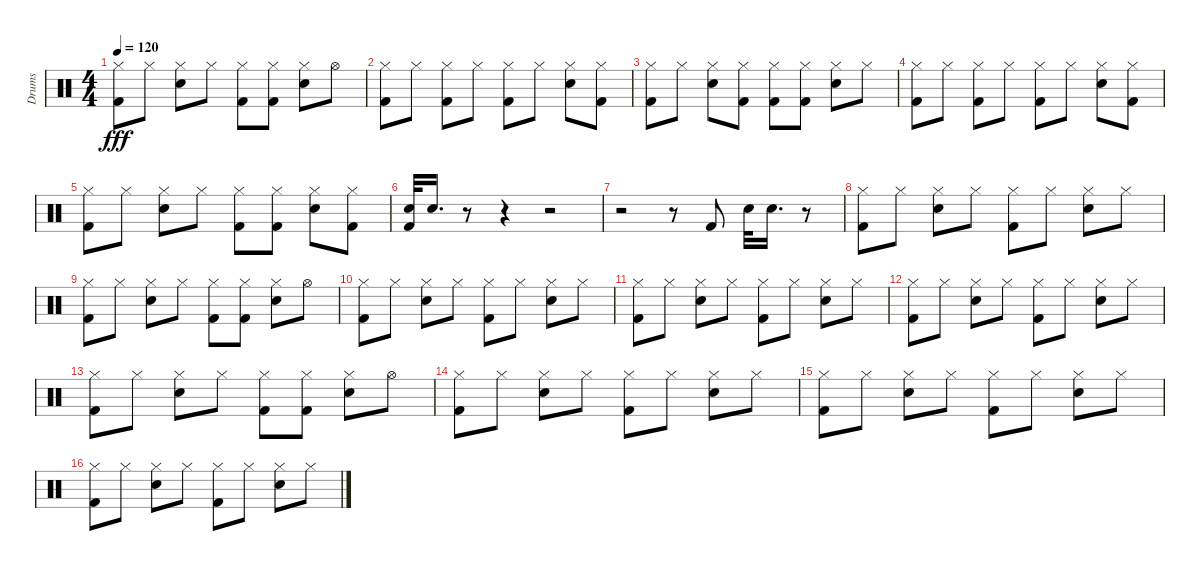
\track ("Drums" "Drums") {instrument percussion}
\staff {score}
\articulation defaults
\ts (4 4)
\tempo 120
\clef neutral
\ks c
("Hi-Hat (closed)" "Kick (hit) 2").8{dy fff} "Hi-Hat (closed)".8 ("Hi-Hat (closed)" "Snare (hit) 2").8 "Hi-Hat (closed)".8 ("Hi-Hat (closed)" "Kick (hit) 2").8 ("Hi-Hat (closed)" "Kick (hit) 2").8 ("Hi-Hat (closed)" "Snare (hit) 2").8 "Hi-Hat (open)".8 |
("Hi-Hat (closed)" "Kick (hit) 2").8 "Hi-Hat (closed)".8 ("Hi-Hat (closed)" "Kick (hit) 2").8 "Hi-Hat (closed)".8 ("Hi-Hat (closed)" "Kick (hit) 2").8 "Hi-Hat (closed)".8 ("Hi-Hat (closed)" "Snare (hit) 2").8 ("Hi-Hat (closed)" "Kick (hit) 2").8 |
("Hi-Hat (closed)" "Kick (hit) 2").8 "Hi-Hat (closed)".8 ("Hi-Hat (closed)" "Snare (hit) 2").8 ("Hi-Hat (closed)" "Kick (hit) 2").8 ("Hi-Hat (closed)" "Kick (hit) 2").8 ("Hi-Hat (closed)" "Kick (hit) 2").8 ("Hi-Hat (closed)" "Snare (hit) 2").8 "Hi-Hat (closed)".8 |
("Hi-Hat (closed)" "Kick (hit) 2").8 "Hi-Hat (closed)".8 ("Hi-Hat (closed)" "Kick (hit) 2").8 "Hi-Hat (closed)".8 ("Hi-Hat (closed)" "Kick (hit) 2").8 "Hi-Hat (closed)".8 ("Hi-Hat (closed)" "Snare (hit) 2").8 ("Hi-Hat (closed)" "Kick (hit) 2").8 |
("Hi-Hat (closed)" "Kick (hit) 2").8 "Hi-Hat (closed)".8 ("Hi-Hat (closed)" "Snare (hit) 2").8 "Hi-Hat (closed)".8 ("Hi-Hat (closed)" "Kick (hit) 2").8 ("Hi-Hat (closed)" "Kick (hit) 2").8 ("Hi-Hat (closed)" "Snare (hit) 2").8 ("Hi-Hat (closed)" "Kick (hit) 2").8 |
("Snare (hit) 2" "Kick (hit) 2").32 "Snare (hit) 2".16{d} r.8 r.4 r.2 |
r.2 r.8 "Kick (hit) 2".8 "Snare (hit) 2".32 "Snare (hit) 2".16{d} r.8 |
("Hi-Hat (closed)" "Kick (hit) 2").8 "Hi-Hat (closed)".8 ("Hi-Hat (closed)" "Snare (hit) 2").8 "Hi-Hat (closed)".8 ("Hi-Hat (closed)" "Kick (hit) 2").8 "Hi-Hat (closed)".8 ("Hi-Hat (closed)" "Snare (hit) 2").8 "Hi-Hat (closed)".8 |
("Hi-Hat (closed)" "Kick (hit) 2").8 "Hi-Hat (closed)".8 ("Hi-Hat (closed)" "Snare (hit) 2").8 "Hi-Hat (closed)".8 ("Hi-Hat (closed)" "Kick (hit) 2").8 ("Hi-Hat (closed)" "Kick (hit) 2").8 ("Hi-Hat (closed)" "Snare (hit) 2").8 "Hi-Hat (open)".8 |
("Hi-Hat (closed)" "Kick (hit) 2").8 "Hi-Hat (closed)".8 ("Hi-Hat (closed)" "Snare (hit) 2").8 "Hi-Hat (closed)".8 ("Hi-Hat (closed)" "Kick (hit) 2").8 "Hi-Hat (closed)".8 ("Hi-Hat (closed)" "Snare (hit) 2").8 "Hi-Hat (closed)".8 |
("Hi-Hat (closed)" "Kick (hit) 2").8 "Hi-Hat (closed)".8 ("Hi-Hat (closed)" "Snare (hit) 2").8 "Hi-Hat (closed)".8 ("Hi-Hat (closed)" "Kick (hit) 2").8 "Hi-Hat (closed)".8 ("Hi-Hat (closed)" "Snare (hit) 2").8 "Hi-Hat (closed)".8 |
("Hi-Hat (closed)" "Kick (hit) 2").8 "Hi-Hat (closed)".8 ("Hi-Hat (closed)" "Snare (hit) 2").8 "Hi-Hat (closed)".8 ("Hi-Hat (closed)" "Kick (hit) 2").8 "Hi-Hat (closed)".8 ("Hi-Hat (closed)" "Snare (hit) 2").8 "Hi-Hat (closed)".8 |
("Hi-Hat (closed)" "Kick (hit) 2").8 "Hi-Hat (closed)".8 ("Hi-Hat (closed)" "Snare (hit) 2").8 "Hi-Hat (closed)".8 ("Hi-Hat (closed)" "Kick (hit) 2").8 ("Hi-Hat (closed)" "Kick (hit) 2").8 ("Hi-Hat (closed)" "Snare (hit) 2").8 "Hi-Hat (open)".8 |
("Hi-Hat (closed)" "Kick (hit) 2").8 "Hi-Hat (closed)".8 ("Hi-Hat (closed)" "Snare (hit) 2").8 "Hi-Hat (closed)".8 ("Hi-Hat (closed)" "Kick (hit) 2").8 "Hi-Hat (closed)".8 ("Hi-Hat (closed)" "Snare (hit) 2").8 "Hi-Hat (closed)".8 |
("Hi-Hat (closed)" "Kick (hit) 2").8 "Hi-Hat (closed)".8 ("Hi-Hat (closed)" "Snare (hit) 2").8 "Hi-Hat (closed)".8 ("Hi-Hat (closed)" "Kick (hit) 2").8 "Hi-Hat (closed)".8 ("Hi-Hat (closed)" "Snare (hit) 2").8 "Hi-Hat (closed)".8 |
("Hi-Hat (closed)" "Kick (hit) 2").8 "Hi-Hat (closed)".8 ("Hi-Hat (closed)" "Snare (hit) 2").8 "Hi-Hat (closed)".8 ("Hi-Hat (closed)" "Kick (hit) 2").8 "Hi-Hat (closed)".8 ("Hi-Hat (closed)" "Snare (hit) 2").8 "Hi-Hat (closed)".8
